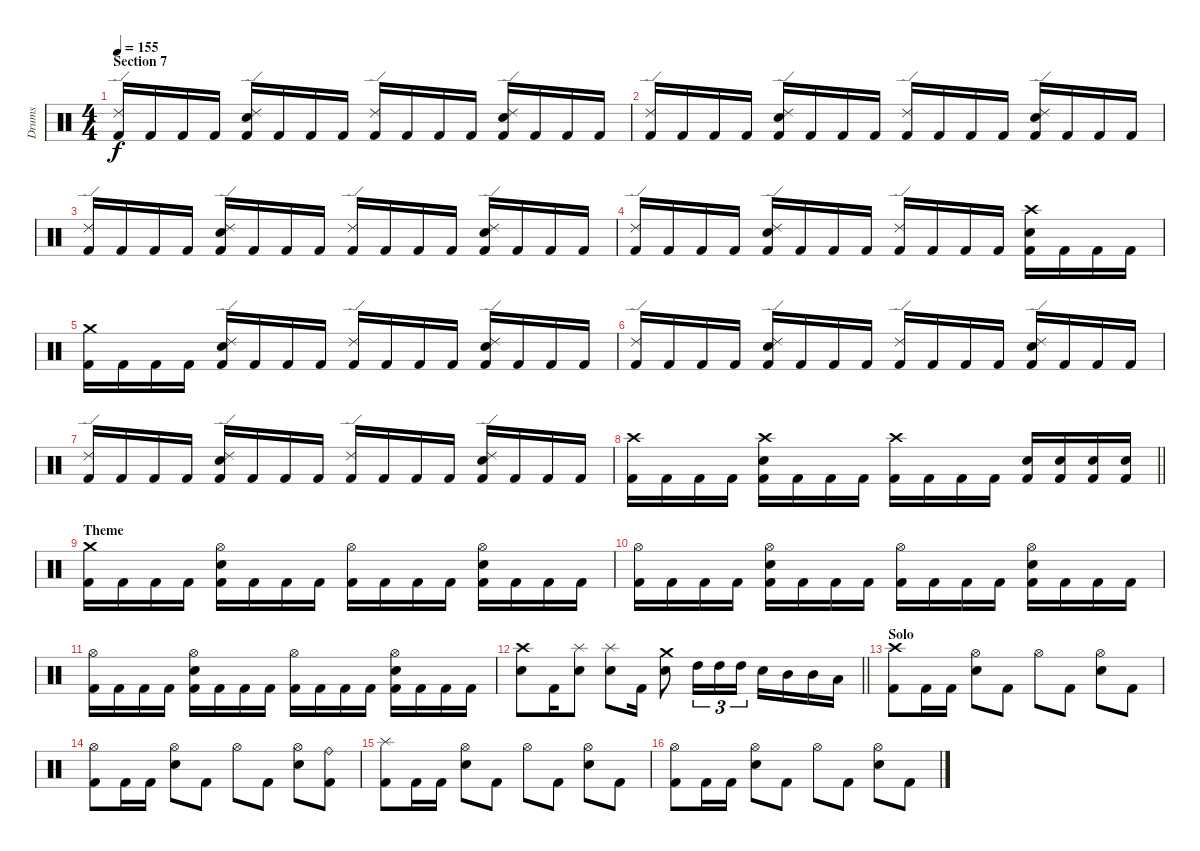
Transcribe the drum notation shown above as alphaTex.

\track ("Drums" "Drums") {instrument percussion}
\staff {score}
\articulation defaults
\ts (4 4)
\section ("" "Section 7")
\tempo 155
\clef neutral
\ks c
("Ride (edge) 2" "Kick (hit) 2").16{dy f} "Kick (hit) 2".16 "Kick (hit) 2".16 "Kick (hit) 2".16 ("Ride (edge) 2" "Electric Snare (hit)" "Kick (hit) 2").16 "Kick (hit) 2".16 "Kick (hit) 2".16 "Kick (hit) 2".16 ("Ride (edge) 2" "Kick (hit) 2").16 "Kick (hit) 2".16 "Kick (hit) 2".16 "Kick (hit) 2".16 ("Ride (edge) 2" "Electric Snare (hit)" "Kick (hit) 2").16 "Kick (hit) 2".16 "Kick (hit) 2".16 "Kick (hit) 2".16 |
("Ride (edge) 2" "Kick (hit) 2").16 "Kick (hit) 2".16 "Kick (hit) 2".16 "Kick (hit) 2".16 ("Ride (edge) 2" "Electric Snare (hit)" "Kick (hit) 2").16 "Kick (hit) 2".16 "Kick (hit) 2".16 "Kick (hit) 2".16 ("Ride (edge) 2" "Kick (hit) 2").16 "Kick (hit) 2".16 "Kick (hit) 2".16 "Kick (hit) 2".16 ("Ride (edge) 2" "Electric Snare (hit)" "Kick (hit) 2").16 "Kick (hit) 2".16 "Kick (hit) 2".16 "Kick (hit) 2".16 |
("Ride (edge) 2" "Kick (hit) 2").16 "Kick (hit) 2".16 "Kick (hit) 2".16 "Kick (hit) 2".16 ("Ride (edge) 2" "Electric Snare (hit)" "Kick (hit) 2").16 "Kick (hit) 2".16 "Kick (hit) 2".16 "Kick (hit) 2".16 ("Ride (edge) 2" "Kick (hit) 2").16 "Kick (hit) 2".16 "Kick (hit) 2".16 "Kick (hit) 2".16 ("Ride (edge) 2" "Electric Snare (hit)" "Kick (hit) 2").16 "Kick (hit) 2".16 "Kick (hit) 2".16 "Kick (hit) 2".16 |
("Ride (edge) 2" "Kick (hit) 2").16 "Kick (hit) 2".16 "Kick (hit) 2".16 "Kick (hit) 2".16 ("Ride (edge) 2" "Electric Snare (hit)" "Kick (hit) 2").16 "Kick (hit) 2".16 "Kick (hit) 2".16 "Kick (hit) 2".16 ("Ride (edge) 2" "Kick (hit) 2").16 "Kick (hit) 2".16 "Kick (hit) 2".16 "Kick (hit) 2".16 ("Crash high (hit)" "Electric Snare (hit)" "Kick (hit) 2").16 "Kick (hit) 2".16 "Kick (hit) 2".16 "Kick (hit) 2".16 |
("Crash medium (hit)" "Kick (hit) 2").16 "Kick (hit) 2".16 "Kick (hit) 2".16 "Kick (hit) 2".16 ("Ride (edge) 2" "Electric Snare (hit)" "Kick (hit) 2").16 "Kick (hit) 2".16 "Kick (hit) 2".16 "Kick (hit) 2".16 ("Ride (edge) 2" "Kick (hit) 2").16 "Kick (hit) 2".16 "Kick (hit) 2".16 "Kick (hit) 2".16 ("Ride (edge) 2" "Electric Snare (hit)" "Kick (hit) 2").16 "Kick (hit) 2".16 "Kick (hit) 2".16 "Kick (hit) 2".16 |
("Ride (edge) 2" "Kick (hit) 2").16 "Kick (hit) 2".16 "Kick (hit) 2".16 "Kick (hit) 2".16 ("Ride (edge) 2" "Electric Snare (hit)" "Kick (hit) 2").16 "Kick (hit) 2".16 "Kick (hit) 2".16 "Kick (hit) 2".16 ("Ride (edge) 2" "Kick (hit) 2").16 "Kick (hit) 2".16 "Kick (hit) 2".16 "Kick (hit) 2".16 ("Ride (edge) 2" "Electric Snare (hit)" "Kick (hit) 2").16 "Kick (hit) 2".16 "Kick (hit) 2".16 "Kick (hit) 2".16 |
("Ride (edge) 2" "Kick (hit) 2").16 "Kick (hit) 2".16 "Kick (hit) 2".16 "Kick (hit) 2".16 ("Ride (edge) 2" "Electric Snare (hit)" "Kick (hit) 2").16 "Kick (hit) 2".16 "Kick (hit) 2".16 "Kick (hit) 2".16 ("Ride (edge) 2" "Kick (hit) 2").16 "Kick (hit) 2".16 "Kick (hit) 2".16 "Kick (hit) 2".16 ("Ride (edge) 2" "Electric Snare (hit)" "Kick (hit) 2").16 "Kick (hit) 2".16 "Kick (hit) 2".16 "Kick (hit) 2".16 |
\barLineRight lightlight
("Crash high (hit)" "Kick (hit) 2").16 "Kick (hit) 2".16 "Kick (hit) 2".16 "Kick (hit) 2".16 ("Crash high (hit)" "Electric Snare (hit)" "Kick (hit) 2").16 "Kick (hit) 2".16 "Kick (hit) 2".16 "Kick (hit) 2".16 ("Crash high (hit)" "Kick (hit) 2").16 "Kick (hit) 2".16 "Kick (hit) 2".16 "Kick (hit) 2".16 ("Electric Snare (hit)" "Kick (hit) 2").16 ("Electric Snare (hit)" "Kick (hit) 2").16 ("Electric Snare (hit)" "Kick (hit) 2").16 ("Electric Snare (hit)" "Kick (hit) 2").16 |
\section ("" "Theme")
("Crash medium (hit)" "Kick (hit) 2").16 "Kick (hit) 2".16 "Kick (hit) 2".16 "Kick (hit) 2".16 ("Hi-Hat (open)" "Electric Snare (hit)" "Kick (hit) 2").16 "Kick (hit) 2".16 "Kick (hit) 2".16 "Kick (hit) 2".16 ("Hi-Hat (open)" "Kick (hit) 2").16 "Kick (hit) 2".16 "Kick (hit) 2".16 "Kick (hit) 2".16 ("Hi-Hat (open)" "Electric Snare (hit)" "Kick (hit) 2").16 "Kick (hit) 2".16 "Kick (hit) 2".16 "Kick (hit) 2".16 |
("Hi-Hat (open)" "Kick (hit) 2").16 "Kick (hit) 2".16 "Kick (hit) 2".16 "Kick (hit) 2".16 ("Hi-Hat (open)" "Electric Snare (hit)" "Kick (hit) 2").16 "Kick (hit) 2".16 "Kick (hit) 2".16 "Kick (hit) 2".16 ("Hi-Hat (open)" "Kick (hit) 2").16 "Kick (hit) 2".16 "Kick (hit) 2".16 "Kick (hit) 2".16 ("Hi-Hat (open)" "Electric Snare (hit)" "Kick (hit) 2").16 "Kick (hit) 2".16 "Kick (hit) 2".16 "Kick (hit) 2".16 |
("Hi-Hat (open)" "Kick (hit) 2").16 "Kick (hit) 2".16 "Kick (hit) 2".16 "Kick (hit) 2".16 ("Hi-Hat (open)" "Electric Snare (hit)" "Kick (hit) 2").16 "Kick (hit) 2".16 "Kick (hit) 2".16 "Kick (hit) 2".16 ("Hi-Hat (open)" "Kick (hit) 2").16 "Kick (hit) 2".16 "Kick (hit) 2".16 "Kick (hit) 2".16 ("Hi-Hat (open)" "Electric Snare (hit)" "Kick (hit) 2").16 "Kick (hit) 2".16 "Kick (hit) 2".16 "Kick (hit) 2".16 |
\barLineRight lightlight
("Crash high (hit)" "Electric Snare (hit)").8 "Kick (hit) 2".16 ("Splash (hit)" "Electric Snare (hit)").8 ("Splash (hit)" "Electric Snare (hit)").8 "Kick (hit) 2".16 ("Crash medium (hit)" "Electric Snare (hit)").8 "High Tom (hit)".16{tu (3 2)} "High Tom (hit)".16{tu (3 2)} "High Tom (hit)".16{tu (3 2)} "Electric Snare (hit)".16 "Mid Tom (hit)".16 "Mid Tom (hit)".16 "Low Tom (hit)".16 |
\section ("" "Solo")
("Crash high (hit)" "Kick (hit) 2").8 "Kick (hit) 2".16 "Kick (hit) 2".16 ("Hi-Hat (open)" "Electric Snare (hit)").8 "Kick (hit) 2".8 "Hi-Hat (open)".8 "Kick (hit) 2".8 ("Hi-Hat (open)" "Electric Snare (hit)").8 "Kick (hit) 2".8 |
("Hi-Hat (open)" "Kick (hit) 2").8 "Kick (hit) 2".16 "Kick (hit) 2".16 ("Hi-Hat (open)" "Electric Snare (hit)").8 "Kick (hit) 2".8 "Hi-Hat (open)".8 "Kick (hit) 2".8 ("Hi-Hat (open)" "Electric Snare (hit)").8 ("Ride (bell)" "Kick (hit) 2").8 |
("Splash (hit)" "Kick (hit) 2").8 "Kick (hit) 2".16 "Kick (hit) 2".16 ("Hi-Hat (open)" "Electric Snare (hit)").8 "Kick (hit) 2".8 "Hi-Hat (open)".8 "Kick (hit) 2".8 ("Hi-Hat (open)" "Electric Snare (hit)").8 "Kick (hit) 2".8 |
("Hi-Hat (open)" "Kick (hit) 2").8 "Kick (hit) 2".16 "Kick (hit) 2".16 ("Hi-Hat (open)" "Electric Snare (hit)").8 "Kick (hit) 2".8 "Hi-Hat (open)".8 "Kick (hit) 2".8 ("Hi-Hat (open)" "Electric Snare (hit)").8 "Kick (hit) 2".8
